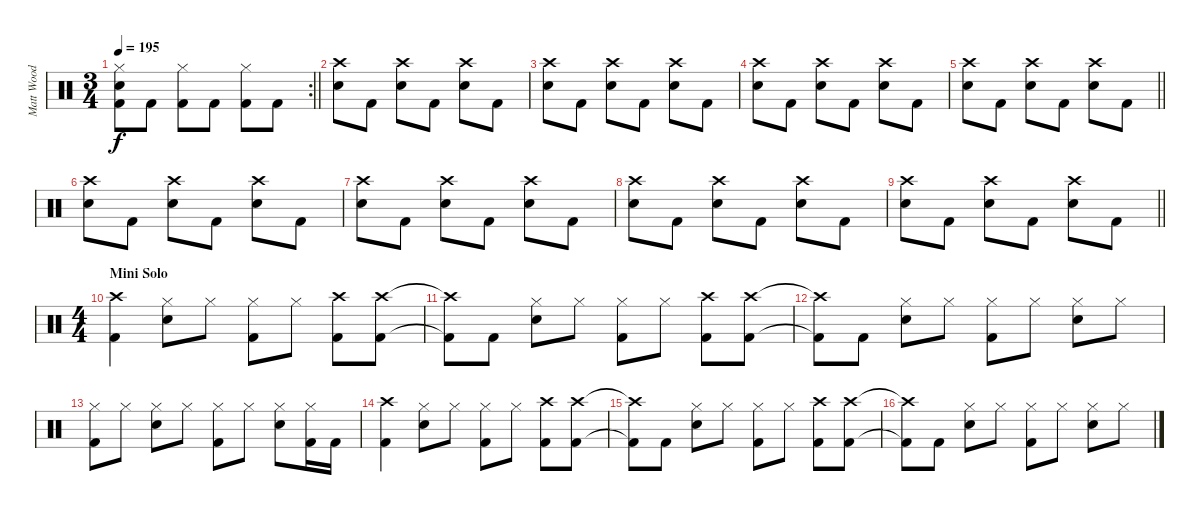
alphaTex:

\track ("Matt Wood" "Matt Wood") {instrument percussion}
\staff {score}
\articulation defaults
\rc 2
\ts (3 4)
\tempo 195
\clef neutral
\barLineRight lightlight
\ks c
("Hi-Hat (closed)" "Snare (hit) 2" "Kick (hit) 2").8{dy f} "Kick (hit) 2".8 ("Hi-Hat (closed)" "Kick (hit) 2").8 "Kick (hit) 2".8 ("Hi-Hat (closed)" "Kick (hit) 2").8 "Kick (hit) 2".8 |
("Crash high (hit)" "Snare (hit) 2").8 "Kick (hit) 2".8 ("Crash high (hit)" "Snare (hit) 2").8 "Kick (hit) 2".8 ("Crash high (hit)" "Snare (hit) 2").8 "Kick (hit) 2".8 |
("Crash high (hit)" "Snare (hit) 2").8 "Kick (hit) 2".8 ("Crash high (hit)" "Snare (hit) 2").8 "Kick (hit) 2".8 ("Crash high (hit)" "Snare (hit) 2").8 "Kick (hit) 2".8 |
("Crash high (hit)" "Snare (hit) 2").8 "Kick (hit) 2".8 ("Crash high (hit)" "Snare (hit) 2").8 "Kick (hit) 2".8 ("Crash high (hit)" "Snare (hit) 2").8 "Kick (hit) 2".8 |
\barLineRight lightlight
("Crash high (hit)" "Snare (hit) 2").8 "Kick (hit) 2".8 ("Crash high (hit)" "Snare (hit) 2").8 "Kick (hit) 2".8 ("Crash high (hit)" "Snare (hit) 2").8 "Kick (hit) 2".8 |
("Crash high (hit)" "Snare (hit) 2").8 "Kick (hit) 2".8 ("Crash high (hit)" "Snare (hit) 2").8 "Kick (hit) 2".8 ("Crash high (hit)" "Snare (hit) 2").8 "Kick (hit) 2".8 |
("Crash high (hit)" "Snare (hit) 2").8 "Kick (hit) 2".8 ("Crash high (hit)" "Snare (hit) 2").8 "Kick (hit) 2".8 ("Crash high (hit)" "Snare (hit) 2").8 "Kick (hit) 2".8 |
("Crash high (hit)" "Snare (hit) 2").8 "Kick (hit) 2".8 ("Crash high (hit)" "Snare (hit) 2").8 "Kick (hit) 2".8 ("Crash high (hit)" "Snare (hit) 2").8 "Kick (hit) 2".8 |
\barLineRight lightlight
("Crash high (hit)" "Snare (hit) 2").8 "Kick (hit) 2".8 ("Crash high (hit)" "Snare (hit) 2").8 "Kick (hit) 2".8 ("Crash high (hit)" "Snare (hit) 2").8 "Kick (hit) 2".8 |
\ts (4 4)
\section ("" "Mini Solo")
("Crash high (hit)" "Kick (hit) 2").4 ("Hi-Hat (closed)" "Snare (hit) 2").8 "Hi-Hat (closed)".8 ("Hi-Hat (closed)" "Kick (hit) 2").8 "Hi-Hat (closed)".8 ("Crash high (hit)" "Kick (hit) 2").8 ("Crash high (hit)" "Kick (hit) 2").8 |
("Crash high (hit)"{t} "Kick (hit) 2"{t}).8 "Kick (hit) 2".8 ("Hi-Hat (closed)" "Snare (hit) 2").8 "Hi-Hat (closed)".8 ("Hi-Hat (closed)" "Kick (hit) 2").8 "Hi-Hat (closed)".8 ("Crash high (hit)" "Kick (hit) 2").8 ("Crash high (hit)" "Kick (hit) 2").8 |
("Crash high (hit)"{t} "Kick (hit) 2"{t}).8 "Kick (hit) 2".8 ("Hi-Hat (closed)" "Snare (hit) 2").8 "Hi-Hat (closed)".8 ("Hi-Hat (closed)" "Kick (hit) 2").8 "Hi-Hat (closed)".8 ("Hi-Hat (closed)" "Snare (hit) 2").8 "Hi-Hat (closed)".8 |
("Hi-Hat (closed)" "Kick (hit) 2").8 "Hi-Hat (closed)".8 ("Hi-Hat (closed)" "Snare (hit) 2").8 "Hi-Hat (closed)".8 ("Hi-Hat (closed)" "Kick (hit) 2").8 "Hi-Hat (closed)".8 ("Hi-Hat (closed)" "Snare (hit) 2").8 ("Hi-Hat (closed)" "Kick (hit) 2").16 "Kick (hit) 2".16 |
("Crash high (hit)" "Kick (hit) 2").4 ("Hi-Hat (closed)" "Snare (hit) 2").8 "Hi-Hat (closed)".8 ("Hi-Hat (closed)" "Kick (hit) 2").8 "Hi-Hat (closed)".8 ("Crash high (hit)" "Kick (hit) 2").8 ("Crash high (hit)" "Kick (hit) 2").8 |
("Crash high (hit)"{t} "Kick (hit) 2"{t}).8 "Kick (hit) 2".8 ("Hi-Hat (closed)" "Snare (hit) 2").8 "Hi-Hat (closed)".8 ("Hi-Hat (closed)" "Kick (hit) 2").8 "Hi-Hat (closed)".8 ("Crash high (hit)" "Kick (hit) 2").8 ("Crash high (hit)" "Kick (hit) 2").8 |
("Crash high (hit)"{t} "Kick (hit) 2"{t}).8 "Kick (hit) 2".8 ("Hi-Hat (closed)" "Snare (hit) 2").8 "Hi-Hat (closed)".8 ("Hi-Hat (closed)" "Kick (hit) 2").8 "Hi-Hat (closed)".8 ("Hi-Hat (closed)" "Snare (hit) 2").8 "Hi-Hat (closed)".8
